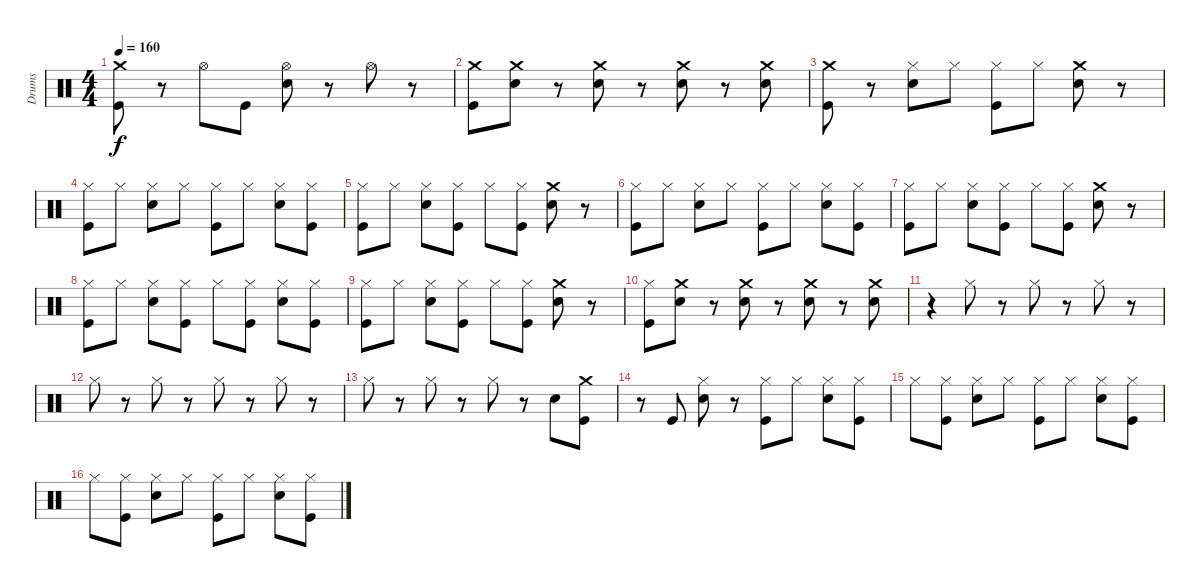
\track ("Drums" "Drums") {instrument percussion}
\staff {score}
\articulation defaults
\ts (4 4)
\tempo 160
\clef neutral
\ks c
("Crash medium (hit)" "Kick (hit)").8{dy f} r.8 "Hi-Hat (open)".8 "Kick (hit)".8 ("Hi-Hat (open)" "Snare (hit) 2").8 r.8 "Hi-Hat (open)".8 r.8 |
("Crash medium (hit)" "Kick (hit)").8 ("Snare (hit) 2" "Crash medium (hit)").8 r.8 ("Crash medium (hit)" "Snare (hit) 2").8 r.8 ("Crash medium (hit)" "Snare (hit) 2").8 r.8 ("Snare (hit) 2" "Crash medium (hit)").8 |
("Kick (hit)" "Crash medium (hit)").8 r.8 ("Hi-Hat (closed)" "Snare (hit) 2").8 "Hi-Hat (closed)".8 ("Kick (hit)" "Hi-Hat (closed)").8 "Hi-Hat (closed)".8 ("Crash medium (hit)" "Snare (hit) 2").8 r.8 |
("Kick (hit)" "Hi-Hat (closed)").8 "Hi-Hat (closed)".8 ("Snare (hit) 2" "Hi-Hat (closed)").8 "Hi-Hat (closed)".8 ("Kick (hit)" "Hi-Hat (closed)").8 "Hi-Hat (closed)".8 ("Hi-Hat (closed)" "Snare (hit) 2").8 ("Hi-Hat (closed)" "Kick (hit)").8 |
("Hi-Hat (closed)" "Kick (hit)").8 "Hi-Hat (closed)".8 ("Snare (hit) 2" "Hi-Hat (closed)").8 ("Kick (hit)" "Hi-Hat (closed)").8 "Hi-Hat (closed)".8 ("Kick (hit)" "Hi-Hat (closed)").8 ("Crash medium (hit)" "Snare (hit) 2").8 r.8 |
("Hi-Hat (closed)" "Kick (hit)").8 "Hi-Hat (closed)".8 ("Snare (hit) 2" "Hi-Hat (closed)").8 "Hi-Hat (closed)".8 ("Hi-Hat (closed)" "Kick (hit)").8 "Hi-Hat (closed)".8 ("Snare (hit) 2" "Hi-Hat (closed)").8 ("Kick (hit)" "Hi-Hat (closed)").8 |
("Hi-Hat (closed)" "Kick (hit)").8 "Hi-Hat (closed)".8 ("Snare (hit) 2" "Hi-Hat (closed)").8 ("Hi-Hat (closed)" "Kick (hit)").8 "Hi-Hat (closed)".8 ("Kick (hit)" "Hi-Hat (closed)").8 ("Crash medium (hit)" "Snare (hit) 2").8 r.8 |
("Hi-Hat (closed)" "Kick (hit)").8 "Hi-Hat (closed)".8 ("Snare (hit) 2" "Hi-Hat (closed)").8 ("Kick (hit)" "Hi-Hat (closed)").8 "Hi-Hat (closed)".8 ("Kick (hit)" "Hi-Hat (closed)").8 ("Hi-Hat (closed)" "Snare (hit) 2").8 ("Hi-Hat (closed)" "Kick (hit)").8 |
("Hi-Hat (closed)" "Kick (hit)").8 "Hi-Hat (closed)".8 ("Snare (hit) 2" "Hi-Hat (closed)").8 ("Kick (hit)" "Hi-Hat (closed)").8 "Hi-Hat (closed)".8 ("Kick (hit)" "Hi-Hat (closed)").8 ("Crash medium (hit)" "Snare (hit) 2").8 r.8 |
("Kick (hit)" "Hi-Hat (closed)").8 ("Crash medium (hit)" "Snare (hit) 2").8 r.8 ("Snare (hit) 2" "Crash medium (hit)").8 r.8 ("Snare (hit) 2" "Crash medium (hit)").8 r.8 ("Crash medium (hit)" "Snare (hit) 2").8 |
r.4 "Hi-Hat (closed)".8 r.8 "Hi-Hat (closed)".8 r.8 "Hi-Hat (closed)".8 r.8 |
"Hi-Hat (closed)".8 r.8 "Hi-Hat (closed)".8 r.8 "Hi-Hat (closed)".8 r.8 "Hi-Hat (closed)".8 r.8 |
"Hi-Hat (closed)".8 r.8 "Hi-Hat (closed)".8 r.8 "Hi-Hat (closed)".8 r.8 "Snare (hit) 2".8 ("Crash medium (hit)" "Kick (hit)").8 |
r.8 "Kick (hit)".8 ("Hi-Hat (closed)" "Snare (hit) 2").8 r.8 ("Kick (hit)" "Hi-Hat (closed)").8 "Hi-Hat (closed)".8 ("Hi-Hat (closed)" "Snare (hit) 2").8 ("Kick (hit)" "Hi-Hat (closed)").8 |
"Hi-Hat (closed)".8 ("Kick (hit)" "Hi-Hat (closed)").8 ("Hi-Hat (closed)" "Snare (hit) 2").8 "Hi-Hat (closed)".8 ("Kick (hit)" "Hi-Hat (closed)").8 "Hi-Hat (closed)".8 ("Snare (hit) 2" "Hi-Hat (closed)").8 ("Kick (hit)" "Hi-Hat (closed)").8 |
"Hi-Hat (closed)".8 ("Kick (hit)" "Hi-Hat (closed)").8 ("Snare (hit) 2" "Hi-Hat (closed)").8 "Hi-Hat (closed)".8 ("Hi-Hat (closed)" "Kick (hit)").8 "Hi-Hat (closed)".8 ("Snare (hit) 2" "Hi-Hat (closed)").8 ("Kick (hit)" "Hi-Hat (closed)").8
